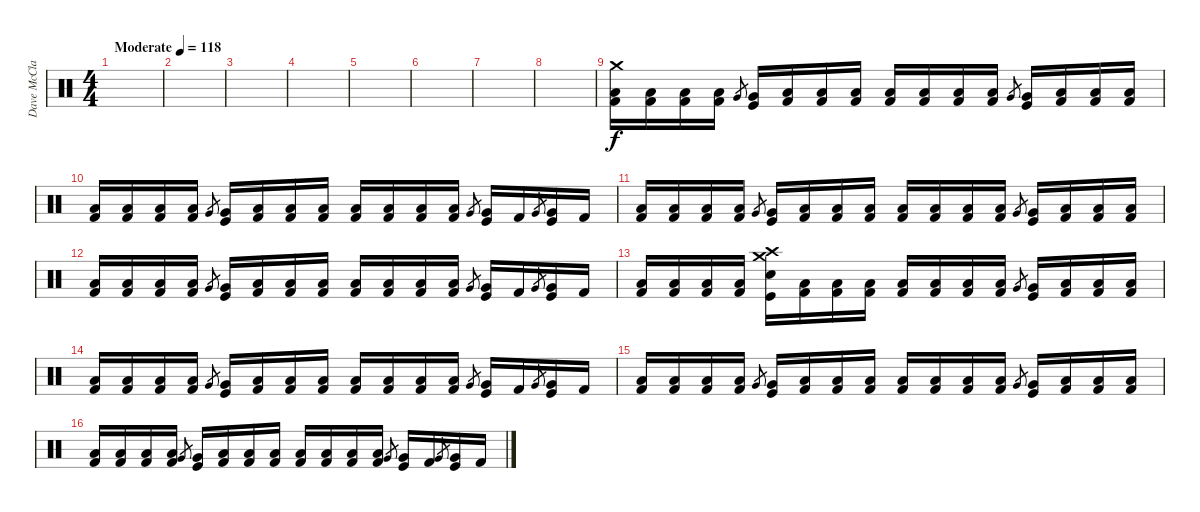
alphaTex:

\track ("Dave McClain" "Dave McCla") {instrument percussion}
\staff {score}
\articulation defaults
\ts (4 4)
\tempo (118 "Moderate")
\clef neutral
\ks c
|
|
|
|
|
|
|
|
("Kick (hit) 2" "Low Floor Tom (hit)" "Crash medium (hit)").16 ("Kick (hit) 2" "Low Floor Tom (hit)").16 ("Kick (hit) 2" "Low Floor Tom (hit)").16 ("Kick (hit) 2" "Low Floor Tom (hit)").16 "Very Low Tom (hit)".8{gr} ("Kick (hit)" "Very Low Tom (hit)").16 ("Kick (hit) 2" "Low Floor Tom (hit)").16 ("Kick (hit) 2" "Low Floor Tom (hit)").16 ("Kick (hit) 2" "Low Floor Tom (hit)").16 ("Kick (hit) 2" "Low Floor Tom (hit)").16 ("Kick (hit) 2" "Low Floor Tom (hit)").16 ("Kick (hit) 2" "Low Floor Tom (hit)").16 ("Kick (hit) 2" "Low Floor Tom (hit)").16 "Very Low Tom (hit)".8{gr} ("Kick (hit)" "Very Low Tom (hit)").16 ("Kick (hit) 2" "Low Floor Tom (hit)").16 ("Kick (hit) 2" "Low Floor Tom (hit)").16 ("Kick (hit) 2" "Low Floor Tom (hit)").16 |
("Kick (hit) 2" "Low Floor Tom (hit)").16 ("Kick (hit) 2" "Low Floor Tom (hit)").16 ("Kick (hit) 2" "Low Floor Tom (hit)").16 ("Kick (hit) 2" "Low Floor Tom (hit)").16 "Very Low Tom (hit)".8{gr} ("Kick (hit)" "Very Low Tom (hit)").16 ("Kick (hit) 2" "Low Floor Tom (hit)").16 ("Kick (hit) 2" "Low Floor Tom (hit)").16 ("Kick (hit) 2" "Low Floor Tom (hit)").16 ("Kick (hit) 2" "Low Floor Tom (hit)").16 ("Kick (hit) 2" "Low Floor Tom (hit)").16 ("Kick (hit) 2" "Low Floor Tom (hit)").16 ("Kick (hit) 2" "Low Floor Tom (hit)").16 "Very Low Tom (hit)".8{gr} ("Kick (hit)" "Very Low Tom (hit)").16 "Kick (hit) 2".16 "Very Low Tom (hit)".8{gr} ("Kick (hit)" "Very Low Tom (hit)").16 "Kick (hit) 2".16 |
("Kick (hit) 2" "Low Floor Tom (hit)").16 ("Kick (hit) 2" "Low Floor Tom (hit)").16 ("Kick (hit) 2" "Low Floor Tom (hit)").16 ("Kick (hit) 2" "Low Floor Tom (hit)").16 "Very Low Tom (hit)".8{gr} ("Kick (hit)" "Very Low Tom (hit)").16 ("Kick (hit) 2" "Low Floor Tom (hit)").16 ("Kick (hit) 2" "Low Floor Tom (hit)").16 ("Kick (hit) 2" "Low Floor Tom (hit)").16 ("Kick (hit) 2" "Low Floor Tom (hit)").16 ("Kick (hit) 2" "Low Floor Tom (hit)").16 ("Kick (hit) 2" "Low Floor Tom (hit)").16 ("Kick (hit) 2" "Low Floor Tom (hit)").16 "Very Low Tom (hit)".8{gr} ("Kick (hit)" "Very Low Tom (hit)").16 ("Kick (hit) 2" "Low Floor Tom (hit)").16 ("Kick (hit) 2" "Low Floor Tom (hit)").16 ("Kick (hit) 2" "Low Floor Tom (hit)").16 |
("Kick (hit) 2" "Low Floor Tom (hit)").16 ("Kick (hit) 2" "Low Floor Tom (hit)").16 ("Kick (hit) 2" "Low Floor Tom (hit)").16 ("Kick (hit) 2" "Low Floor Tom (hit)").16 "Very Low Tom (hit)".8{gr} ("Kick (hit)" "Very Low Tom (hit)").16 ("Kick (hit) 2" "Low Floor Tom (hit)").16 ("Kick (hit) 2" "Low Floor Tom (hit)").16 ("Kick (hit) 2" "Low Floor Tom (hit)").16 ("Kick (hit) 2" "Low Floor Tom (hit)").16 ("Kick (hit) 2" "Low Floor Tom (hit)").16 ("Kick (hit) 2" "Low Floor Tom (hit)").16 ("Kick (hit) 2" "Low Floor Tom (hit)").16 "Very Low Tom (hit)".8{gr} ("Kick (hit)" "Very Low Tom (hit)").16 "Kick (hit) 2".16 "Very Low Tom (hit)".8{gr} ("Kick (hit)" "Very Low Tom (hit)").16 "Kick (hit) 2".16 |
("Kick (hit) 2" "Low Floor Tom (hit)").16 ("Kick (hit) 2" "Low Floor Tom (hit)").16 ("Kick (hit) 2" "Low Floor Tom (hit)").16 ("Kick (hit) 2" "Low Floor Tom (hit)").16 ("Kick (hit)" "Snare (hit) 2" "Crash medium (hit)" "Crash high (hit)").16 ("Kick (hit) 2" "Low Floor Tom (hit)").16 ("Kick (hit) 2" "Low Floor Tom (hit)").16 ("Kick (hit) 2" "Low Floor Tom (hit)").16 ("Kick (hit) 2" "Low Floor Tom (hit)").16 ("Kick (hit) 2" "Low Floor Tom (hit)").16 ("Kick (hit) 2" "Low Floor Tom (hit)").16 ("Kick (hit) 2" "Low Floor Tom (hit)").16 "Very Low Tom (hit)".8{gr} ("Kick (hit)" "Very Low Tom (hit)").16 ("Kick (hit) 2" "Low Floor Tom (hit)").16 ("Kick (hit) 2" "Low Floor Tom (hit)").16 ("Kick (hit) 2" "Low Floor Tom (hit)").16 |
("Kick (hit) 2" "Low Floor Tom (hit)").16 ("Kick (hit) 2" "Low Floor Tom (hit)").16 ("Kick (hit) 2" "Low Floor Tom (hit)").16 ("Kick (hit) 2" "Low Floor Tom (hit)").16 "Very Low Tom (hit)".8{gr} ("Kick (hit)" "Very Low Tom (hit)").16 ("Kick (hit) 2" "Low Floor Tom (hit)").16 ("Kick (hit) 2" "Low Floor Tom (hit)").16 ("Kick (hit) 2" "Low Floor Tom (hit)").16 ("Kick (hit) 2" "Low Floor Tom (hit)").16 ("Kick (hit) 2" "Low Floor Tom (hit)").16 ("Kick (hit) 2" "Low Floor Tom (hit)").16 ("Kick (hit) 2" "Low Floor Tom (hit)").16 "Very Low Tom (hit)".8{gr} ("Kick (hit)" "Very Low Tom (hit)").16 "Kick (hit) 2".16 "Very Low Tom (hit)".8{gr} ("Kick (hit)" "Very Low Tom (hit)").16 "Kick (hit) 2".16 |
("Kick (hit) 2" "Low Floor Tom (hit)").16 ("Kick (hit) 2" "Low Floor Tom (hit)").16 ("Kick (hit) 2" "Low Floor Tom (hit)").16 ("Kick (hit) 2" "Low Floor Tom (hit)").16 "Very Low Tom (hit)".8{gr} ("Kick (hit)" "Very Low Tom (hit)").16 ("Kick (hit) 2" "Low Floor Tom (hit)").16 ("Kick (hit) 2" "Low Floor Tom (hit)").16 ("Kick (hit) 2" "Low Floor Tom (hit)").16 ("Kick (hit) 2" "Low Floor Tom (hit)").16 ("Kick (hit) 2" "Low Floor Tom (hit)").16 ("Kick (hit) 2" "Low Floor Tom (hit)").16 ("Kick (hit) 2" "Low Floor Tom (hit)").16 "Very Low Tom (hit)".8{gr} ("Kick (hit)" "Very Low Tom (hit)").16 ("Kick (hit) 2" "Low Floor Tom (hit)").16 ("Kick (hit) 2" "Low Floor Tom (hit)").16 ("Kick (hit) 2" "Low Floor Tom (hit)").16 |
("Kick (hit) 2" "Low Floor Tom (hit)").16 ("Kick (hit) 2" "Low Floor Tom (hit)").16 ("Kick (hit) 2" "Low Floor Tom (hit)").16 ("Kick (hit) 2" "Low Floor Tom (hit)").16 "Very Low Tom (hit)".8{gr} ("Kick (hit)" "Very Low Tom (hit)").16 ("Kick (hit) 2" "Low Floor Tom (hit)").16 ("Kick (hit) 2" "Low Floor Tom (hit)").16 ("Kick (hit) 2" "Low Floor Tom (hit)").16 ("Kick (hit) 2" "Low Floor Tom (hit)").16 ("Kick (hit) 2" "Low Floor Tom (hit)").16 ("Kick (hit) 2" "Low Floor Tom (hit)").16 ("Kick (hit) 2" "Low Floor Tom (hit)").16 "Very Low Tom (hit)".8{gr} ("Kick (hit)" "Very Low Tom (hit)").16 "Kick (hit) 2".16 "Very Low Tom (hit)".8{gr} ("Kick (hit)" "Very Low Tom (hit)").16 "Kick (hit) 2".16
